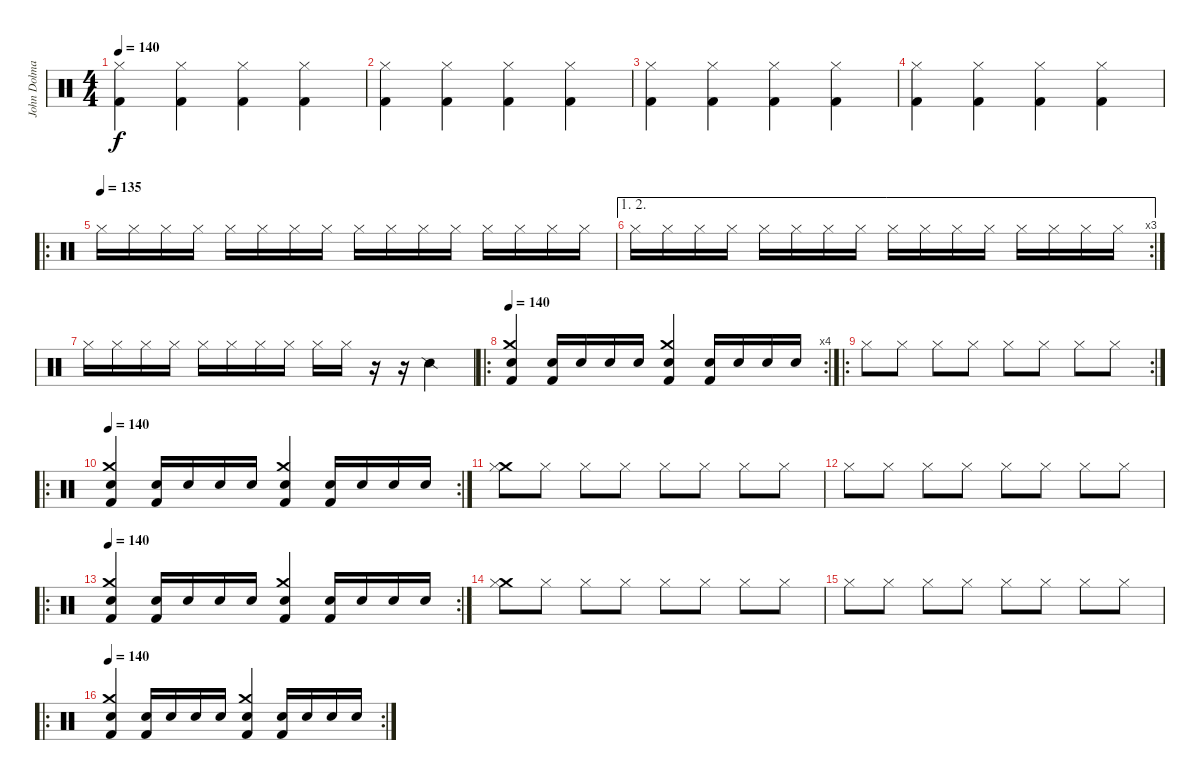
\track ("John Dolmayan" "John Dolma") {instrument percussion}
\staff {score}
\articulation defaults
\ts (4 4)
\tempo 140
\clef neutral
\ks c
("Hi-Hat (closed)" "Kick (hit) 2").4{dy f} ("Hi-Hat (closed)" "Kick (hit) 2").4 ("Hi-Hat (closed)" "Kick (hit) 2").4 ("Hi-Hat (closed)" "Kick (hit) 2").4 |
("Hi-Hat (closed)" "Kick (hit) 2").4 ("Hi-Hat (closed)" "Kick (hit) 2").4 ("Hi-Hat (closed)" "Kick (hit) 2").4 ("Hi-Hat (closed)" "Kick (hit) 2").4 |
("Hi-Hat (closed)" "Kick (hit) 2").4 ("Hi-Hat (closed)" "Kick (hit) 2").4 ("Hi-Hat (closed)" "Kick (hit) 2").4 ("Hi-Hat (closed)" "Kick (hit) 2").4 |
("Hi-Hat (closed)" "Kick (hit) 2").4 ("Hi-Hat (closed)" "Kick (hit) 2").4 ("Hi-Hat (closed)" "Kick (hit) 2").4 ("Hi-Hat (closed)" "Kick (hit) 2").4 |
\ro
\tempo (135)
"Hi-Hat (closed)".16 "Hi-Hat (closed)".16 "Hi-Hat (closed)".16 "Hi-Hat (closed)".16 "Hi-Hat (closed)".16 "Hi-Hat (closed)".16 "Hi-Hat (closed)".16 "Hi-Hat (closed)".16 "Hi-Hat (closed)".16 "Hi-Hat (closed)".16 "Hi-Hat (closed)".16 "Hi-Hat (closed)".16 "Hi-Hat (closed)".16 "Hi-Hat (closed)".16 "Hi-Hat (closed)".16 "Hi-Hat (closed)".16 |
\ae (1 2)
\rc 3 "Hi-Hat (closed)".16 "Hi-Hat (closed)".16 "Hi-Hat (closed)".16 "Hi-Hat (closed)".16 "Hi-Hat (closed)".16 "Hi-Hat (closed)".16 "Hi-Hat (closed)".16 "Hi-Hat (closed)".16 "Hi-Hat (closed)".16 "Hi-Hat (closed)".16 "Hi-Hat (closed)".16 "Hi-Hat (closed)".16 "Hi-Hat (closed)".16 "Hi-Hat (closed)".16 "Hi-Hat (closed)".16 "Hi-Hat (closed)".16
|
"Hi-Hat (closed)".16 "Hi-Hat (closed)".16 "Hi-Hat (closed)".16 "Hi-Hat (closed)".16 "Hi-Hat (closed)".16 "Hi-Hat (closed)".16 "Hi-Hat (closed)".16 "Hi-Hat (closed)".16 "Hi-Hat (closed)".16 "Hi-Hat (closed)".16 r.16 r.16 "Snare (side stick) 2".4 |
\ro
\rc 4
\tempo 140
("Crash medium (hit)" "Electric Snare (hit)" "Kick (hit) 2").4 ("Electric Snare (hit)" "Kick (hit) 2").16 "Electric Snare (hit)".16 "Electric Snare (hit)".16 "Electric Snare (hit)".16 ("Crash medium (hit)" "Electric Snare (hit)" "Kick (hit) 2").4 ("Electric Snare (hit)" "Kick (hit) 2").16 "Electric Snare (hit)".16 "Electric Snare (hit)".16 "Electric Snare (hit)".16 |
\ro
\rc 2 "Hi-Hat (closed)".8 "Hi-Hat (closed)".8 "Hi-Hat (closed)".8 "Hi-Hat (closed)".8 "Hi-Hat (closed)".8 "Hi-Hat (closed)".8 "Hi-Hat (closed)".8 "Hi-Hat (closed)".8
|
\ro
\rc 2
\tempo 140
("Crash medium (hit)" "Electric Snare (hit)" "Kick (hit) 2").4 ("Electric Snare (hit)" "Kick (hit) 2").16 "Electric Snare (hit)".16 "Electric Snare (hit)".16 "Electric Snare (hit)".16 ("Crash medium (hit)" "Electric Snare (hit)" "Kick (hit) 2").4 ("Electric Snare (hit)" "Kick (hit) 2").16 "Electric Snare (hit)".16 "Electric Snare (hit)".16 "Electric Snare (hit)".16 |
("Crash medium (hit)" "Hi-Hat (closed)").8 "Hi-Hat (closed)".8 "Hi-Hat (closed)".8 "Hi-Hat (closed)".8 "Hi-Hat (closed)".8 "Hi-Hat (closed)".8 "Hi-Hat (closed)".8 "Hi-Hat (closed)".8 |
"Hi-Hat (closed)".8 "Hi-Hat (closed)".8 "Hi-Hat (closed)".8 "Hi-Hat (closed)".8 "Hi-Hat (closed)".8 "Hi-Hat (closed)".8 "Hi-Hat (closed)".8 "Hi-Hat (closed)".8 |
\ro
\rc 2
\tempo 140
("Crash medium (hit)" "Electric Snare (hit)" "Kick (hit) 2").4 ("Electric Snare (hit)" "Kick (hit) 2").16 "Electric Snare (hit)".16 "Electric Snare (hit)".16 "Electric Snare (hit)".16 ("Crash medium (hit)" "Electric Snare (hit)" "Kick (hit) 2").4 ("Electric Snare (hit)" "Kick (hit) 2").16 "Electric Snare (hit)".16 "Electric Snare (hit)".16 "Electric Snare (hit)".16 |
("Crash medium (hit)" "Hi-Hat (closed)").8 "Hi-Hat (closed)".8 "Hi-Hat (closed)".8 "Hi-Hat (closed)".8 "Hi-Hat (closed)".8 "Hi-Hat (closed)".8 "Hi-Hat (closed)".8 "Hi-Hat (closed)".8 |
"Hi-Hat (closed)".8 "Hi-Hat (closed)".8 "Hi-Hat (closed)".8 "Hi-Hat (closed)".8 "Hi-Hat (closed)".8 "Hi-Hat (closed)".8 "Hi-Hat (closed)".8 "Hi-Hat (closed)".8 |
\ro
\rc 2
\tempo 140
("Crash medium (hit)" "Electric Snare (hit)" "Kick (hit) 2").4 ("Electric Snare (hit)" "Kick (hit) 2").16 "Electric Snare (hit)".16 "Electric Snare (hit)".16 "Electric Snare (hit)".16 ("Crash medium (hit)" "Electric Snare (hit)" "Kick (hit) 2").4 ("Electric Snare (hit)" "Kick (hit) 2").16 "Electric Snare (hit)".16 "Electric Snare (hit)".16 "Electric Snare (hit)".16
